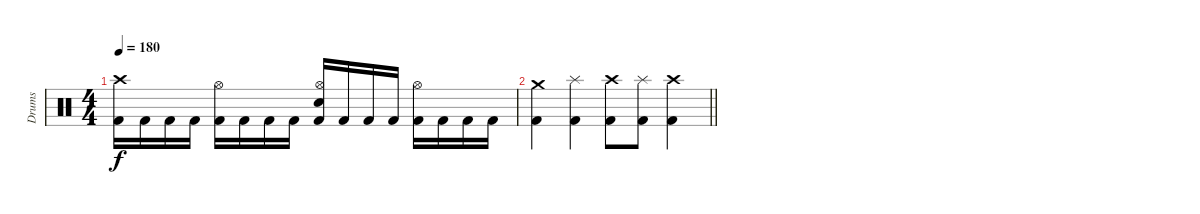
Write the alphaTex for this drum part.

\track ("Drums" "Drums") {instrument percussion}
\staff {score}
\articulation defaults
\ts (4 4)
\tempo 180
\clef neutral
\ks c
("Crash high (hit)" "Kick (hit) 2").16{dy f} "Kick (hit) 2".16 "Kick (hit) 2".16 "Kick (hit) 2".16 ("Hi-Hat (open)" "Kick (hit) 2").16 "Kick (hit) 2".16 "Kick (hit) 2".16 "Kick (hit) 2".16 ("Hi-Hat (open)" "Electric Snare (hit)" "Kick (hit) 2").16 "Kick (hit) 2".16 "Kick (hit) 2".16 "Kick (hit) 2".16 ("Hi-Hat (open)" "Kick (hit) 2").16 "Kick (hit) 2".16 "Kick (hit) 2".16 "Kick (hit) 2".16 |
\barLineRight lightlight
("Crash medium (hit)" "Kick (hit) 2").4 ("Splash (hit)" "Kick (hit) 2").4 ("Crash high (hit)" "Kick (hit) 2").8 ("Splash (hit)" "Kick (hit) 2").8 ("Crash high (hit)" "Kick (hit) 2").4
